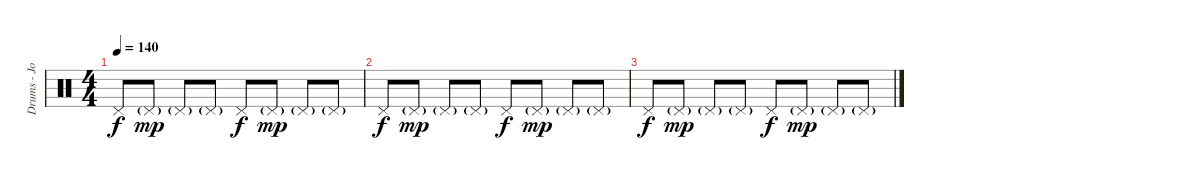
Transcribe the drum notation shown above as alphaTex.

\track ("Drums - Josh Klinghoffer" "Drums - Jo") {instrument percussion}
\staff {score}
\articulation defaults
\ts (4 4)
\tempo 140
\clef neutral
\ks c "Pedal Hi-Hat (hit)".8{dy f} "Pedal Hi-Hat (hit)"{g}.8{dy mp} "Pedal Hi-Hat (hit)"{g}.8 "Pedal Hi-Hat (hit)"{g}.8 "Pedal Hi-Hat (hit)".8{dy f} "Pedal Hi-Hat (hit)"{g}.8{dy mp} "Pedal Hi-Hat (hit)"{g}.8 "Pedal Hi-Hat (hit)"{g}.8
|
"Pedal Hi-Hat (hit)".8{dy f} "Pedal Hi-Hat (hit)"{g}.8{dy mp} "Pedal Hi-Hat (hit)"{g}.8 "Pedal Hi-Hat (hit)"{g}.8 "Pedal Hi-Hat (hit)".8{dy f} "Pedal Hi-Hat (hit)"{g}.8{dy mp} "Pedal Hi-Hat (hit)"{g}.8 "Pedal Hi-Hat (hit)"{g}.8 |
"Pedal Hi-Hat (hit)".8{dy f} "Pedal Hi-Hat (hit)"{g}.8{dy mp} "Pedal Hi-Hat (hit)"{g}.8 "Pedal Hi-Hat (hit)"{g}.8 "Pedal Hi-Hat (hit)".8{dy f} "Pedal Hi-Hat (hit)"{g}.8{dy mp} "Pedal Hi-Hat (hit)"{g}.8 "Pedal Hi-Hat (hit)"{g}.8
